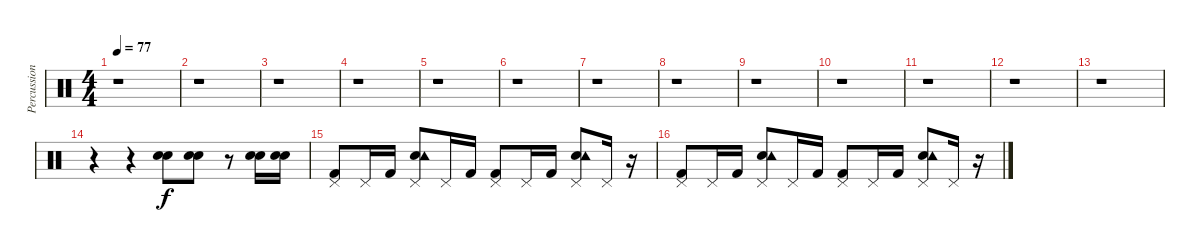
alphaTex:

\track ("Percussions" "Percussion") {instrument percussion}
\staff {score}
\articulation defaults
\ts (4 4)
\tempo 77
\clef neutral
\ks c
r.1{dy f} |
r.1 |
r.1 |
r.1 |
r.1 |
r.1 |
r.1 |
r.1 |
r.1 |
r.1 |
r.1 |
r.1 |
r.1 |
r.4 r.4 ("Electric Snare (hit)" "Snare (hit) 2").8 ("Electric Snare (hit)" "Snare (hit) 2").8 r.8 ("Electric Snare (hit)" "Snare (hit) 2").16 ("Electric Snare (hit)" "Snare (hit) 2").16 |
("Kick (hit) 2" "Pedal Hi-Hat (hit)").8 "Pedal Hi-Hat (hit)".16 "Kick (hit) 2".16 ("Snare (hit) 2" "Tambourine (hit)" "Pedal Hi-Hat (hit)").8 "Pedal Hi-Hat (hit)".16 "Kick (hit) 2".16 ("Kick (hit) 2" "Pedal Hi-Hat (hit)").8 "Pedal Hi-Hat (hit)".16 "Kick (hit) 2".16 ("Snare (hit) 2" "Tambourine (hit)" "Pedal Hi-Hat (hit)").8 "Pedal Hi-Hat (hit)".16 r.16 |
("Kick (hit) 2" "Pedal Hi-Hat (hit)").8 "Pedal Hi-Hat (hit)".16 "Kick (hit) 2".16 ("Snare (hit) 2" "Tambourine (hit)" "Pedal Hi-Hat (hit)").8 "Pedal Hi-Hat (hit)".16 "Kick (hit) 2".16 ("Kick (hit) 2" "Pedal Hi-Hat (hit)").8 "Pedal Hi-Hat (hit)".16 "Kick (hit) 2".16 ("Snare (hit) 2" "Tambourine (hit)" "Pedal Hi-Hat (hit)").8 "Pedal Hi-Hat (hit)".16 r.16
